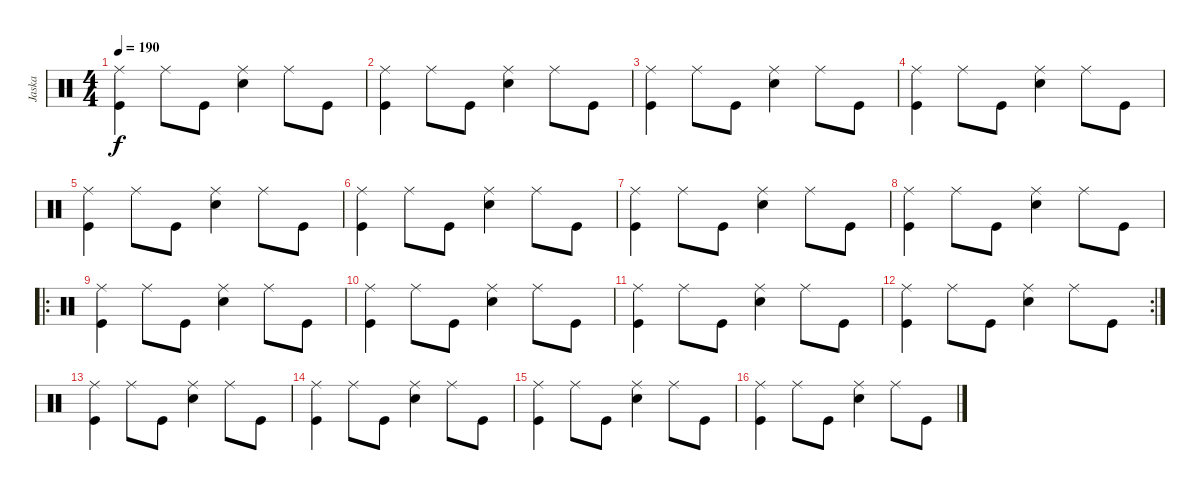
\track ("Jaska" "Jaska") {instrument percussion}
\staff {score}
\articulation defaults
\ts (4 4)
\tempo 190
\clef neutral
\ks c
("Ride (middle)" "Kick (hit)").4{dy f} "Ride (middle)".8 "Kick (hit)".8 ("Ride (middle)" "Snare (hit) 2").4 "Ride (middle)".8 "Kick (hit)".8 |
("Ride (middle)" "Kick (hit)").4 "Ride (middle)".8 "Kick (hit)".8 ("Ride (middle)" "Snare (hit) 2").4 "Ride (middle)".8 "Kick (hit)".8 |
("Ride (middle)" "Kick (hit)").4 "Ride (middle)".8 "Kick (hit)".8 ("Ride (middle)" "Snare (hit) 2").4 "Ride (middle)".8 "Kick (hit)".8 |
("Ride (middle)" "Kick (hit)").4 "Ride (middle)".8 "Kick (hit)".8 ("Ride (middle)" "Snare (hit) 2").4 "Ride (middle)".8 "Kick (hit)".8 |
("Ride (middle)" "Kick (hit)").4 "Ride (middle)".8 "Kick (hit)".8 ("Ride (middle)" "Snare (hit) 2").4 "Ride (middle)".8 "Kick (hit)".8 |
("Ride (middle)" "Kick (hit)").4 "Ride (middle)".8 "Kick (hit)".8 ("Ride (middle)" "Snare (hit) 2").4 "Ride (middle)".8 "Kick (hit)".8 |
("Ride (middle)" "Kick (hit)").4 "Ride (middle)".8 "Kick (hit)".8 ("Ride (middle)" "Snare (hit) 2").4 "Ride (middle)".8 "Kick (hit)".8 |
("Ride (middle)" "Kick (hit)").4 "Ride (middle)".8 "Kick (hit)".8 ("Ride (middle)" "Snare (hit) 2").4 "Ride (middle)".8 "Kick (hit)".8 |
\ro
("Ride (middle)" "Kick (hit)").4 "Ride (middle)".8 "Kick (hit)".8 ("Ride (middle)" "Snare (hit) 2").4 "Ride (middle)".8 "Kick (hit)".8 |
("Ride (middle)" "Kick (hit)").4 "Ride (middle)".8 "Kick (hit)".8 ("Ride (middle)" "Snare (hit) 2").4 "Ride (middle)".8 "Kick (hit)".8 |
("Ride (middle)" "Kick (hit)").4 "Ride (middle)".8 "Kick (hit)".8 ("Ride (middle)" "Snare (hit) 2").4 "Ride (middle)".8 "Kick (hit)".8 |
\rc 2
("Ride (middle)" "Kick (hit)").4 "Ride (middle)".8 "Kick (hit)".8 ("Ride (middle)" "Snare (hit) 2").4 "Ride (middle)".8 "Kick (hit)".8 |
("Ride (middle)" "Kick (hit)").4 "Ride (middle)".8 "Kick (hit)".8 ("Ride (middle)" "Snare (hit) 2").4 "Ride (middle)".8 "Kick (hit)".8 |
("Ride (middle)" "Kick (hit)").4 "Ride (middle)".8 "Kick (hit)".8 ("Ride (middle)" "Snare (hit) 2").4 "Ride (middle)".8 "Kick (hit)".8 |
("Ride (middle)" "Kick (hit)").4 "Ride (middle)".8 "Kick (hit)".8 ("Ride (middle)" "Snare (hit) 2").4 "Ride (middle)".8 "Kick (hit)".8 |
("Ride (middle)" "Kick (hit)").4 "Ride (middle)".8 "Kick (hit)".8 ("Ride (middle)" "Snare (hit) 2").4 "Ride (middle)".8 "Kick (hit)".8
